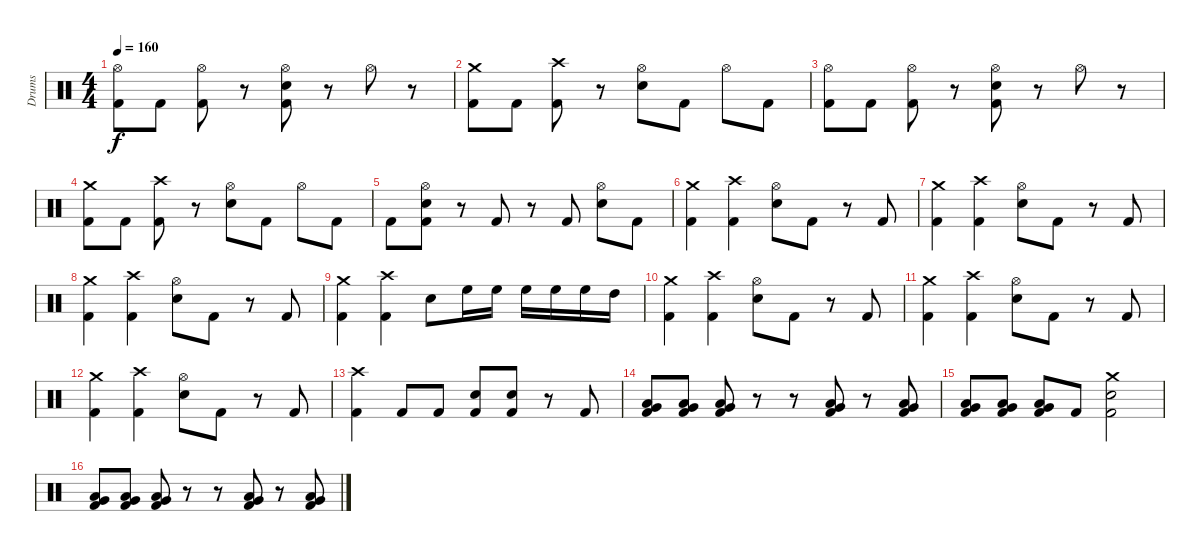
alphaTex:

\track ("Drums" "Drums") {instrument percussion}
\staff {score}
\articulation defaults
\ts (4 4)
\tempo 160
\clef neutral
\ks c
("Hi-Hat (open)" "Kick (hit) 2").8{dy f} "Kick (hit) 2".8 ("Hi-Hat (open)" "Kick (hit) 2").8 r.8 ("Snare (hit) 2" "Hi-Hat (open)" "Kick (hit) 2").8 r.8 "Hi-Hat (open)".8 r.8 |
("Crash medium (hit)" "Kick (hit) 2").8 "Kick (hit) 2".8 ("Crash high (hit)" "Kick (hit) 2").8 r.8 ("Snare (hit) 2" "Hi-Hat (open)").8 "Kick (hit) 2".8 "Hi-Hat (open)".8 "Kick (hit) 2".8 |
("Hi-Hat (open)" "Kick (hit) 2").8 "Kick (hit) 2".8 ("Hi-Hat (open)" "Kick (hit) 2").8 r.8 ("Snare (hit) 2" "Hi-Hat (open)" "Kick (hit) 2").8 r.8 "Hi-Hat (open)".8 r.8 |
("Crash medium (hit)" "Kick (hit) 2").8 "Kick (hit) 2".8 ("Crash high (hit)" "Kick (hit) 2").8 r.8 ("Snare (hit) 2" "Hi-Hat (open)").8 "Kick (hit) 2".8 "Hi-Hat (open)".8 "Kick (hit) 2".8 |
"Kick (hit) 2".8 ("Snare (hit) 2" "Hi-Hat (open)" "Kick (hit) 2").8 r.8 "Kick (hit) 2".8 r.8 "Kick (hit) 2".8 ("Snare (hit) 2" "Hi-Hat (open)").8 "Kick (hit) 2".8 |
("Crash medium (hit)" "Kick (hit) 2").4 ("Crash high (hit)" "Kick (hit) 2").4 ("Snare (hit) 2" "Hi-Hat (open)").8 "Kick (hit) 2".8 r.8 "Kick (hit) 2".8 |
("Crash medium (hit)" "Kick (hit) 2").4 ("Crash high (hit)" "Kick (hit) 2").4 ("Snare (hit) 2" "Hi-Hat (open)").8 "Kick (hit) 2".8 r.8 "Kick (hit) 2".8 |
("Crash medium (hit)" "Kick (hit) 2").4 ("Crash high (hit)" "Kick (hit) 2").4 ("Snare (hit) 2" "Hi-Hat (open)").8 "Kick (hit) 2".8 r.8 "Kick (hit) 2".8 |
("Crash medium (hit)" "Kick (hit) 2").4 ("Crash high (hit)" "Kick (hit) 2").4 "Snare (hit) 2".8 "High Floor Tom (hit)".16 "High Floor Tom (hit)".16 "High Floor Tom (hit)".16 "High Floor Tom (hit)".16 "High Floor Tom (hit)".16 "High Tom (hit)".16 |
("Crash medium (hit)" "Kick (hit) 2").4 ("Crash high (hit)" "Kick (hit) 2").4 ("Snare (hit) 2" "Hi-Hat (open)").8 "Kick (hit) 2".8 r.8 "Kick (hit) 2".8 |
("Crash medium (hit)" "Kick (hit) 2").4 ("Crash high (hit)" "Kick (hit) 2").4 ("Snare (hit) 2" "Hi-Hat (open)").8 "Kick (hit) 2".8 r.8 "Kick (hit) 2".8 |
("Crash medium (hit)" "Kick (hit) 2").4 ("Crash high (hit)" "Kick (hit) 2").4 ("Snare (hit) 2" "Hi-Hat (open)").8 "Kick (hit) 2".8 r.8 "Kick (hit) 2".8 |
("Crash high (hit)" "Kick (hit) 2").4 "Kick (hit) 2".8 "Kick (hit) 2".8 ("Snare (hit) 2" "Kick (hit) 2").8 ("Snare (hit) 2" "Kick (hit) 2").8 r.8 "Kick (hit) 2".8 |
("Very Low Tom (hit)" "Low Tom (hit)" "Kick (hit) 2").8 ("Very Low Tom (hit)" "Low Tom (hit)" "Kick (hit) 2").8 ("Very Low Tom (hit)" "Low Tom (hit)" "Kick (hit) 2").8 r.8 r.8 ("Very Low Tom (hit)" "Low Tom (hit)" "Kick (hit) 2").8 r.8 ("Very Low Tom (hit)" "Low Tom (hit)" "Kick (hit) 2").8 |
("Very Low Tom (hit)" "Low Tom (hit)" "Kick (hit) 2").8 ("Very Low Tom (hit)" "Low Tom (hit)" "Kick (hit) 2").8 ("Very Low Tom (hit)" "Low Tom (hit)" "Kick (hit) 2").8 "Kick (hit) 2".8 ("Crash medium (hit)" "Snare (hit) 2" "Kick (hit) 2").2 |
("Very Low Tom (hit)" "Low Tom (hit)" "Kick (hit) 2").8 ("Very Low Tom (hit)" "Low Tom (hit)" "Kick (hit) 2").8 ("Very Low Tom (hit)" "Low Tom (hit)" "Kick (hit) 2").8 r.8 r.8 ("Very Low Tom (hit)" "Low Tom (hit)" "Kick (hit) 2").8 r.8 ("Very Low Tom (hit)" "Low Tom (hit)" "Kick (hit) 2").8
